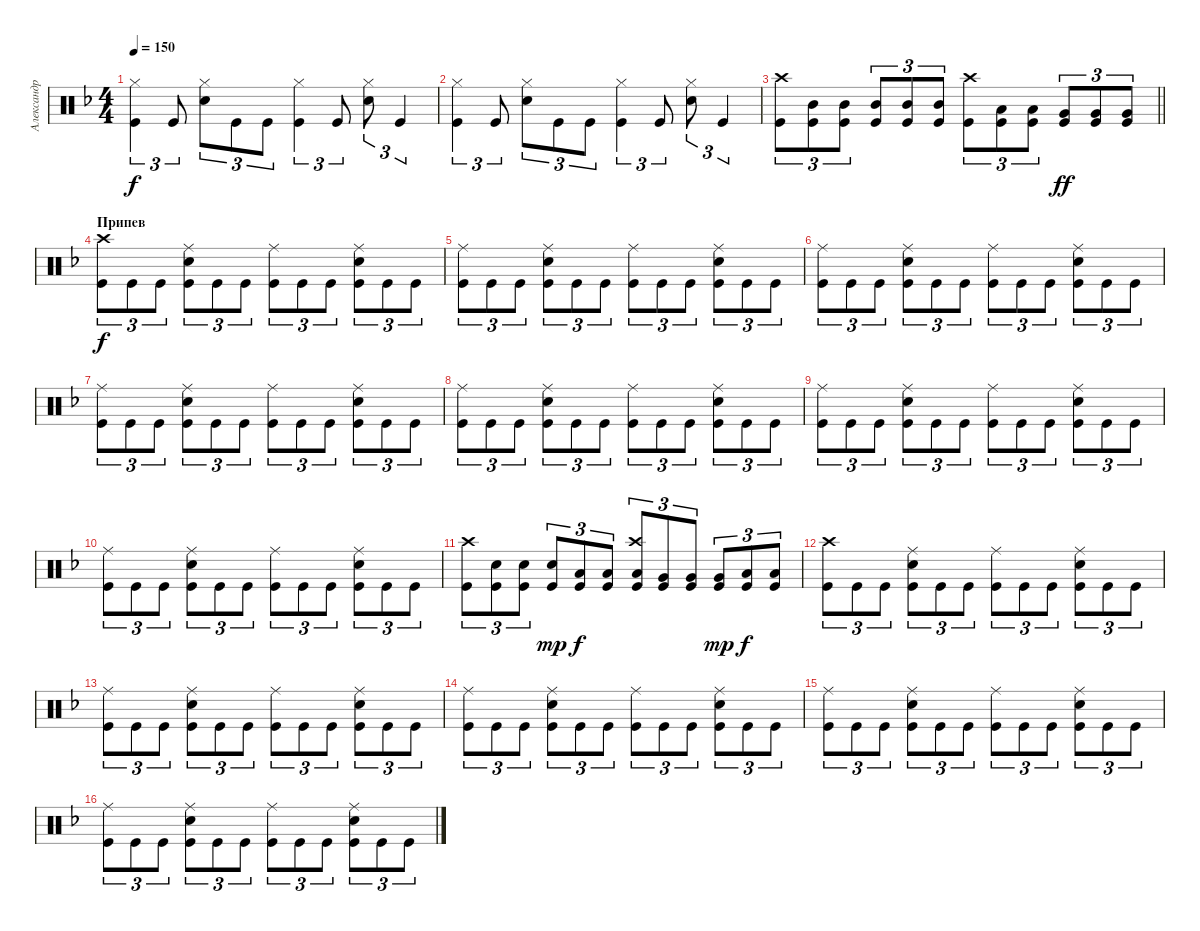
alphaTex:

\track ("Александр Манякин" "Александр ") {instrument percussion}
\staff {score}
\articulation defaults
\ts (4 4)
\tempo 150
\clef neutral
\ks dminor
("Kick (hit)" "Hi-Hat (closed)").4{tu (3 2) dy f} "Kick (hit)".8{tu (3 2)} ("Snare (hit) 2" "Hi-Hat (closed)").8{tu (3 2)} "Kick (hit)".8{tu (3 2)} "Kick (hit)".8{tu (3 2)} ("Kick (hit)" "Hi-Hat (closed)").4{tu (3 2)} "Kick (hit)".8{tu (3 2)} ("Snare (hit) 2" "Hi-Hat (closed)").8{tu (3 2)} "Kick (hit)".4{tu (3 2)} |
("Kick (hit)" "Hi-Hat (closed)").4{tu (3 2)} "Kick (hit)".8{tu (3 2)} ("Snare (hit) 2" "Hi-Hat (closed)").8{tu (3 2)} "Kick (hit)".8{tu (3 2)} "Kick (hit)".8{tu (3 2)} ("Kick (hit)" "Hi-Hat (closed)").4{tu (3 2)} "Kick (hit)".8{tu (3 2)} ("Snare (hit) 2" "Hi-Hat (closed)").8{tu (3 2)} "Kick (hit)".4{tu (3 2)} |
\barLineRight lightlight
("Kick (hit)" "Crash high (hit)").8{tu (3 2)} ("Mid Tom (hit)" "Kick (hit)").8{tu (3 2)} ("Mid Tom (hit)" "Kick (hit)").8{tu (3 2)} ("Mid Tom (hit)" "Kick (hit)").8{tu (3 2)} ("Mid Tom (hit)" "Kick (hit)").8{tu (3 2)} ("Mid Tom (hit)" "Kick (hit)").8{tu (3 2)} ("Kick (hit)" "Crash high (hit)").8{tu (3 2)} ("Low Tom (hit)" "Kick (hit)").8{tu (3 2)} ("Low Tom (hit)" "Kick (hit)").8{tu (3 2)} ("Very Low Tom (hit)" "Kick (hit)").8{tu (3 2) dy ff} ("Very Low Tom (hit)" "Kick (hit)").8{tu (3 2)} ("Very Low Tom (hit)" "Kick (hit)").8{tu (3 2)} |
\section ("" "Припев")
("Kick (hit)" "Crash high (hit)").8{tu (3 2) dy f} "Kick (hit)".8{tu (3 2)} "Kick (hit)".8{tu (3 2)} ("Snare (hit) 2" "Kick (hit)" "Ride (middle)").8{tu (3 2)} "Kick (hit)".8{tu (3 2)} "Kick (hit)".8{tu (3 2)} ("Kick (hit)" "Ride (middle)").8{tu (3 2)} "Kick (hit)".8{tu (3 2)} "Kick (hit)".8{tu (3 2)} ("Kick (hit)" "Snare (hit) 2" "Ride (middle)").8{tu (3 2)} "Kick (hit)".8{tu (3 2)} "Kick (hit)".8{tu (3 2)} |
("Kick (hit)" "Ride (middle)").8{tu (3 2)} "Kick (hit)".8{tu (3 2)} "Kick (hit)".8{tu (3 2)} ("Snare (hit) 2" "Kick (hit)" "Ride (middle)").8{tu (3 2)} "Kick (hit)".8{tu (3 2)} "Kick (hit)".8{tu (3 2)} ("Kick (hit)" "Ride (middle)").8{tu (3 2)} "Kick (hit)".8{tu (3 2)} "Kick (hit)".8{tu (3 2)} ("Kick (hit)" "Snare (hit) 2" "Ride (middle)").8{tu (3 2)} "Kick (hit)".8{tu (3 2)} "Kick (hit)".8{tu (3 2)} |
("Kick (hit)" "Ride (middle)").8{tu (3 2)} "Kick (hit)".8{tu (3 2)} "Kick (hit)".8{tu (3 2)} ("Snare (hit) 2" "Kick (hit)" "Ride (middle)").8{tu (3 2)} "Kick (hit)".8{tu (3 2)} "Kick (hit)".8{tu (3 2)} ("Kick (hit)" "Ride (middle)").8{tu (3 2)} "Kick (hit)".8{tu (3 2)} "Kick (hit)".8{tu (3 2)} ("Kick (hit)" "Snare (hit) 2" "Ride (middle)").8{tu (3 2)} "Kick (hit)".8{tu (3 2)} "Kick (hit)".8{tu (3 2)} |
("Kick (hit)" "Ride (middle)").8{tu (3 2)} "Kick (hit)".8{tu (3 2)} "Kick (hit)".8{tu (3 2)} ("Snare (hit) 2" "Kick (hit)" "Ride (middle)").8{tu (3 2)} "Kick (hit)".8{tu (3 2)} "Kick (hit)".8{tu (3 2)} ("Kick (hit)" "Ride (middle)").8{tu (3 2)} "Kick (hit)".8{tu (3 2)} "Kick (hit)".8{tu (3 2)} ("Kick (hit)" "Snare (hit) 2" "Ride (middle)").8{tu (3 2)} "Kick (hit)".8{tu (3 2)} "Kick (hit)".8{tu (3 2)} |
("Kick (hit)" "Ride (middle)").8{tu (3 2)} "Kick (hit)".8{tu (3 2)} "Kick (hit)".8{tu (3 2)} ("Snare (hit) 2" "Kick (hit)" "Ride (middle)").8{tu (3 2)} "Kick (hit)".8{tu (3 2)} "Kick (hit)".8{tu (3 2)} ("Kick (hit)" "Ride (middle)").8{tu (3 2)} "Kick (hit)".8{tu (3 2)} "Kick (hit)".8{tu (3 2)} ("Kick (hit)" "Snare (hit) 2" "Ride (middle)").8{tu (3 2)} "Kick (hit)".8{tu (3 2)} "Kick (hit)".8{tu (3 2)} |
("Kick (hit)" "Ride (middle)").8{tu (3 2)} "Kick (hit)".8{tu (3 2)} "Kick (hit)".8{tu (3 2)} ("Snare (hit) 2" "Kick (hit)" "Ride (middle)").8{tu (3 2)} "Kick (hit)".8{tu (3 2)} "Kick (hit)".8{tu (3 2)} ("Kick (hit)" "Ride (middle)").8{tu (3 2)} "Kick (hit)".8{tu (3 2)} "Kick (hit)".8{tu (3 2)} ("Kick (hit)" "Snare (hit) 2" "Ride (middle)").8{tu (3 2)} "Kick (hit)".8{tu (3 2)} "Kick (hit)".8{tu (3 2)} |
("Kick (hit)" "Ride (middle)").8{tu (3 2)} "Kick (hit)".8{tu (3 2)} "Kick (hit)".8{tu (3 2)} ("Snare (hit) 2" "Kick (hit)" "Ride (middle)").8{tu (3 2)} "Kick (hit)".8{tu (3 2)} "Kick (hit)".8{tu (3 2)} ("Kick (hit)" "Ride (middle)").8{tu (3 2)} "Kick (hit)".8{tu (3 2)} "Kick (hit)".8{tu (3 2)} ("Kick (hit)" "Snare (hit) 2" "Ride (middle)").8{tu (3 2)} "Kick (hit)".8{tu (3 2)} "Kick (hit)".8{tu (3 2)} |
("Kick (hit)" "Crash high (hit)").8{tu (3 2)} ("Snare (hit) 2" "Kick (hit)").8{tu (3 2)} ("Snare (hit) 2" "Kick (hit)").8{tu (3 2)} ("Snare (hit) 2" "Kick (hit)").8{tu (3 2) dy mp} ("Kick (hit)" "Low Tom (hit)").8{tu (3 2) dy f} ("Kick (hit)" "Low Tom (hit)").8{tu (3 2)} ("Kick (hit)" "Crash high (hit)" "Low Tom (hit)").8{tu (3 2)} ("Very Low Tom (hit)" "Kick (hit)").8{tu (3 2)} ("Very Low Tom (hit)" "Kick (hit)").8{tu (3 2)} ("Very Low Tom (hit)" "Kick (hit)").8{tu (3 2) dy mp} ("Low Floor Tom (hit)" "Kick (hit)").8{tu (3 2) dy f} ("Low Floor Tom (hit)" "Kick (hit)").8{tu (3 2)} |
("Kick (hit)" "Crash high (hit)").8{tu (3 2)} "Kick (hit)".8{tu (3 2)} "Kick (hit)".8{tu (3 2)} ("Snare (hit) 2" "Kick (hit)" "Ride (middle)").8{tu (3 2)} "Kick (hit)".8{tu (3 2)} "Kick (hit)".8{tu (3 2)} ("Kick (hit)" "Ride (middle)").8{tu (3 2)} "Kick (hit)".8{tu (3 2)} "Kick (hit)".8{tu (3 2)} ("Kick (hit)" "Snare (hit) 2" "Ride (middle)").8{tu (3 2)} "Kick (hit)".8{tu (3 2)} "Kick (hit)".8{tu (3 2)} |
("Kick (hit)" "Ride (middle)").8{tu (3 2)} "Kick (hit)".8{tu (3 2)} "Kick (hit)".8{tu (3 2)} ("Snare (hit) 2" "Kick (hit)" "Ride (middle)").8{tu (3 2)} "Kick (hit)".8{tu (3 2)} "Kick (hit)".8{tu (3 2)} ("Kick (hit)" "Ride (middle)").8{tu (3 2)} "Kick (hit)".8{tu (3 2)} "Kick (hit)".8{tu (3 2)} ("Kick (hit)" "Snare (hit) 2" "Ride (middle)").8{tu (3 2)} "Kick (hit)".8{tu (3 2)} "Kick (hit)".8{tu (3 2)} |
("Kick (hit)" "Ride (middle)").8{tu (3 2)} "Kick (hit)".8{tu (3 2)} "Kick (hit)".8{tu (3 2)} ("Snare (hit) 2" "Kick (hit)" "Ride (middle)").8{tu (3 2)} "Kick (hit)".8{tu (3 2)} "Kick (hit)".8{tu (3 2)} ("Kick (hit)" "Ride (middle)").8{tu (3 2)} "Kick (hit)".8{tu (3 2)} "Kick (hit)".8{tu (3 2)} ("Kick (hit)" "Snare (hit) 2" "Ride (middle)").8{tu (3 2)} "Kick (hit)".8{tu (3 2)} "Kick (hit)".8{tu (3 2)} |
("Kick (hit)" "Ride (middle)").8{tu (3 2)} "Kick (hit)".8{tu (3 2)} "Kick (hit)".8{tu (3 2)} ("Snare (hit) 2" "Kick (hit)" "Ride (middle)").8{tu (3 2)} "Kick (hit)".8{tu (3 2)} "Kick (hit)".8{tu (3 2)} ("Kick (hit)" "Ride (middle)").8{tu (3 2)} "Kick (hit)".8{tu (3 2)} "Kick (hit)".8{tu (3 2)} ("Kick (hit)" "Snare (hit) 2" "Ride (middle)").8{tu (3 2)} "Kick (hit)".8{tu (3 2)} "Kick (hit)".8{tu (3 2)} |
("Kick (hit)" "Ride (middle)").8{tu (3 2)} "Kick (hit)".8{tu (3 2)} "Kick (hit)".8{tu (3 2)} ("Snare (hit) 2" "Kick (hit)" "Ride (middle)").8{tu (3 2)} "Kick (hit)".8{tu (3 2)} "Kick (hit)".8{tu (3 2)} ("Kick (hit)" "Ride (middle)").8{tu (3 2)} "Kick (hit)".8{tu (3 2)} "Kick (hit)".8{tu (3 2)} ("Kick (hit)" "Snare (hit) 2" "Ride (middle)").8{tu (3 2)} "Kick (hit)".8{tu (3 2)} "Kick (hit)".8{tu (3 2)}
